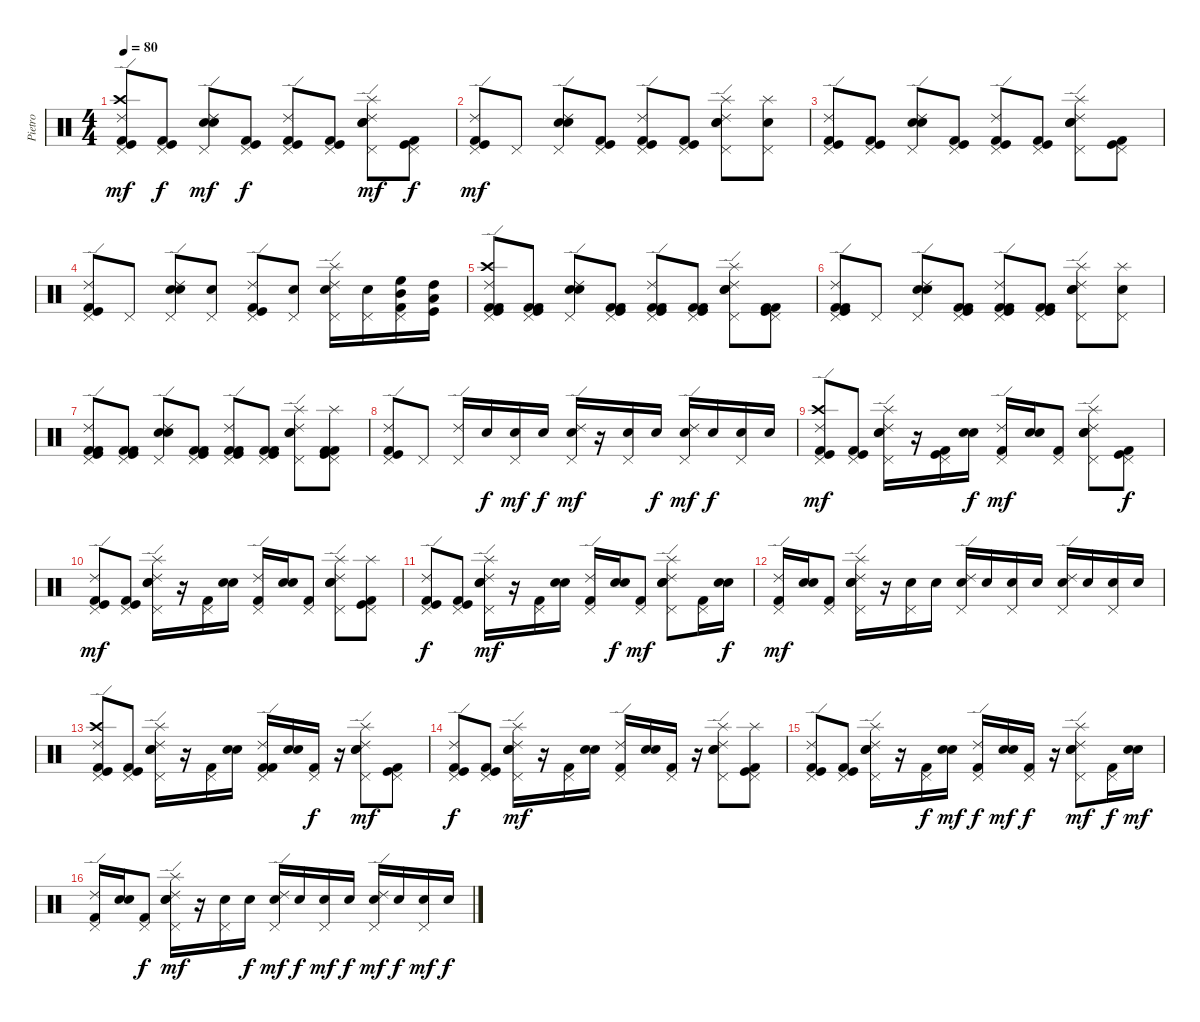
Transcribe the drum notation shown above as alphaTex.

\track ("Pietro" "Pietro") {instrument percussion}
\staff {score}
\articulation defaults
\ts (4 4)
\tempo 80
\clef neutral
\ks c
("Pedal Hi-Hat (hit)" "Ride (edge) 2" "Crash high (hit)" "Kick (hit)" "Kick (hit) 2").8{dy mf} ("Pedal Hi-Hat (hit)" "Kick (hit)" "Kick (hit) 2").8{dy f} ("Pedal Hi-Hat (hit)" "Ride (edge) 2" "Snare (hit) 2" "Electric Snare (hit)").8{dy mf} ("Pedal Hi-Hat (hit)" "Kick (hit)" "Kick (hit) 2").8{dy f} ("Pedal Hi-Hat (hit)" "Ride (edge) 2" "Kick (hit)" "Kick (hit) 2").8 ("Pedal Hi-Hat (hit)" "Kick (hit)" "Kick (hit) 2").8 ("Pedal Hi-Hat (hit)" "Ride (edge) 2" "Snare (hit) 2" "Electric Snare (hit)" "Splash (hit)").8{dy mf} ("Pedal Hi-Hat (hit)" "Kick (hit)" "Kick (hit) 2").8{dy f} |
("Pedal Hi-Hat (hit)" "Ride (edge) 2" "Kick (hit)" "Kick (hit) 2").8{dy mf} "Pedal Hi-Hat (hit)".8 ("Pedal Hi-Hat (hit)" "Ride (edge) 2" "Snare (hit) 2" "Electric Snare (hit)").8 ("Pedal Hi-Hat (hit)" "Kick (hit)" "Kick (hit) 2").8 ("Pedal Hi-Hat (hit)" "Ride (edge) 2" "Kick (hit)" "Kick (hit) 2").8 ("Pedal Hi-Hat (hit)" "Kick (hit)" "Kick (hit) 2").8 ("Pedal Hi-Hat (hit)" "Ride (edge) 2" "Snare (hit) 2" "Electric Snare (hit)" "Splash (hit)").8 ("Pedal Hi-Hat (hit)" "Splash (hit)" "Snare (hit) 2").8 |
("Pedal Hi-Hat (hit)" "Ride (edge) 2" "Kick (hit)" "Kick (hit) 2").8 ("Pedal Hi-Hat (hit)" "Kick (hit)" "Kick (hit) 2").8 ("Pedal Hi-Hat (hit)" "Ride (edge) 2" "Snare (hit) 2" "Electric Snare (hit)").8 ("Pedal Hi-Hat (hit)" "Kick (hit)" "Kick (hit) 2").8 ("Pedal Hi-Hat (hit)" "Ride (edge) 2" "Kick (hit)" "Kick (hit) 2").8 ("Pedal Hi-Hat (hit)" "Kick (hit)" "Kick (hit) 2").8 ("Pedal Hi-Hat (hit)" "Ride (edge) 2" "Snare (hit) 2" "Electric Snare (hit)" "Splash (hit)").8 ("Pedal Hi-Hat (hit)" "Kick (hit)" "Kick (hit) 2").8 |
("Pedal Hi-Hat (hit)" "Ride (edge) 2" "Kick (hit)" "Kick (hit) 2").8 "Pedal Hi-Hat (hit)".8 ("Pedal Hi-Hat (hit)" "Ride (edge) 2" "Snare (hit) 2" "Electric Snare (hit)").8 ("Pedal Hi-Hat (hit)" "Snare (hit) 2").8 ("Pedal Hi-Hat (hit)" "Ride (edge) 2" "Kick (hit)" "Kick (hit) 2").8 ("Pedal Hi-Hat (hit)" "Snare (hit) 2").8 ("Pedal Hi-Hat (hit)" "Ride (edge) 2" "Snare (hit) 2" "Splash (hit)").16 ("Pedal Hi-Hat (hit)" "Snare (hit) 2").16 ("Pedal Hi-Hat (hit)" "Mid Tom (hit)" "High Floor Tom (hit)" "Kick (hit) 2").16 ("High Tom (hit)" "Low Tom (hit)" "Kick (hit)").16 |
("Pedal Hi-Hat (hit)" "Ride (edge) 2" "Kick (hit) 2" "Kick (hit)" "Crash high (hit)" "Kick (hit) 2").8 ("Pedal Hi-Hat (hit)" "Kick (hit)" "Kick (hit) 2" "Kick (hit) 2").8 ("Pedal Hi-Hat (hit)" "Ride (edge) 2" "Snare (hit) 2" "Electric Snare (hit)").8 ("Pedal Hi-Hat (hit)" "Kick (hit)" "Kick (hit) 2" "Kick (hit) 2").8 ("Pedal Hi-Hat (hit)" "Ride (edge) 2" "Kick (hit)" "Kick (hit) 2" "Kick (hit) 2").8 ("Pedal Hi-Hat (hit)" "Kick (hit)" "Kick (hit) 2" "Kick (hit) 2").8 ("Pedal Hi-Hat (hit)" "Ride (edge) 2" "Snare (hit) 2" "Electric Snare (hit)" "Splash (hit)").8 ("Pedal Hi-Hat (hit)" "Kick (hit)" "Kick (hit) 2" "Kick (hit) 2").8 |
("Kick (hit)" "Kick (hit) 2" "Ride (edge) 2" "Pedal Hi-Hat (hit)" "Kick (hit) 2").8 "Pedal Hi-Hat (hit)".8 ("Electric Snare (hit)" "Snare (hit) 2" "Ride (edge) 2" "Pedal Hi-Hat (hit)").8 ("Kick (hit) 2" "Kick (hit)" "Pedal Hi-Hat (hit)" "Kick (hit) 2").8 ("Kick (hit) 2" "Kick (hit)" "Ride (edge) 2" "Pedal Hi-Hat (hit)" "Kick (hit) 2").8 ("Kick (hit) 2" "Kick (hit)" "Pedal Hi-Hat (hit)" "Kick (hit) 2").8 ("Electric Snare (hit)" "Snare (hit) 2" "Ride (edge) 2" "Pedal Hi-Hat (hit)" "Splash (hit)").8 ("Pedal Hi-Hat (hit)" "Snare (hit) 2" "Splash (hit)").8 |
("Kick (hit)" "Kick (hit) 2" "Ride (edge) 2" "Pedal Hi-Hat (hit)" "Kick (hit) 2").8 ("Kick (hit) 2" "Kick (hit)" "Pedal Hi-Hat (hit)" "Kick (hit) 2").8 ("Electric Snare (hit)" "Snare (hit) 2" "Ride (edge) 2" "Pedal Hi-Hat (hit)").8 ("Kick (hit) 2" "Kick (hit)" "Pedal Hi-Hat (hit)" "Kick (hit) 2").8 ("Kick (hit) 2" "Kick (hit)" "Ride (edge) 2" "Pedal Hi-Hat (hit)" "Kick (hit) 2").8 ("Kick (hit) 2" "Kick (hit)" "Pedal Hi-Hat (hit)" "Kick (hit) 2").8 ("Splash (hit)" "Electric Snare (hit)" "Snare (hit) 2" "Ride (edge) 2" "Pedal Hi-Hat (hit)").8 ("Splash (hit)" "Kick (hit) 2" "Kick (hit)" "Pedal Hi-Hat (hit)" "Kick (hit) 2").8 |
("Pedal Hi-Hat (hit)" "Ride (edge) 2" "Kick (hit)" "Kick (hit) 2").8 "Pedal Hi-Hat (hit)".8 ("Pedal Hi-Hat (hit)" "Ride (edge) 2").16 "Snare (hit) 2".16{dy f} ("Pedal Hi-Hat (hit)" "Snare (hit) 2").16{dy mf} "Snare (hit) 2".16{dy f} ("Pedal Hi-Hat (hit)" "Ride (edge) 2" "Snare (hit) 2").16{dy mf} r.16 ("Pedal Hi-Hat (hit)" "Snare (hit) 2").16 "Snare (hit) 2".16{dy f} ("Pedal Hi-Hat (hit)" "Ride (edge) 2" "Snare (hit) 2").16{dy mf} "Snare (hit) 2".16{dy f} ("Pedal Hi-Hat (hit)" "Snare (hit) 2").16 "Snare (hit) 2".16 |
("Pedal Hi-Hat (hit)" "Ride (edge) 2" "Crash high (hit)" "Kick (hit)" "Kick (hit) 2").8{dy mf} ("Pedal Hi-Hat (hit)" "Kick (hit)" "Kick (hit) 2").8 ("Pedal Hi-Hat (hit)" "Ride (edge) 2" "Snare (hit) 2" "Electric Snare (hit)" "Splash (hit)").16 r.16 ("Pedal Hi-Hat (hit)" "Kick (hit)" "Kick (hit) 2").16 ("Electric Snare (hit)" "Snare (hit) 2").16{dy f} ("Pedal Hi-Hat (hit)" "Ride (edge) 2" "Kick (hit) 2").16{dy mf} ("Electric Snare (hit)" "Snare (hit) 2").16 ("Pedal Hi-Hat (hit)" "Kick (hit) 2").8 ("Pedal Hi-Hat (hit)" "Electric Snare (hit)" "Snare (hit) 2" "Ride (edge) 2" "Splash (hit)").8 ("Pedal Hi-Hat (hit)" "Kick (hit)" "Kick (hit) 2").8{dy f} |
("Pedal Hi-Hat (hit)" "Ride (edge) 2" "Kick (hit)" "Kick (hit) 2").8{dy mf} ("Pedal Hi-Hat (hit)" "Kick (hit)" "Kick (hit) 2").8 ("Pedal Hi-Hat (hit)" "Ride (edge) 2" "Snare (hit) 2" "Electric Snare (hit)" "Splash (hit)").16 r.16 ("Pedal Hi-Hat (hit)" "Kick (hit) 2").16 ("Electric Snare (hit)" "Snare (hit) 2").16 ("Pedal Hi-Hat (hit)" "Ride (edge) 2" "Kick (hit) 2").16 ("Electric Snare (hit)" "Snare (hit) 2").16 ("Pedal Hi-Hat (hit)" "Kick (hit) 2").8 ("Pedal Hi-Hat (hit)" "Ride (edge) 2" "Snare (hit) 2" "Electric Snare (hit)" "Splash (hit)").8 ("Pedal Hi-Hat (hit)" "Splash (hit)" "Kick (hit)" "Kick (hit) 2").8 |
("Pedal Hi-Hat (hit)" "Ride (edge) 2" "Kick (hit)" "Kick (hit) 2").8{dy f} ("Pedal Hi-Hat (hit)" "Kick (hit)" "Kick (hit) 2").8 ("Pedal Hi-Hat (hit)" "Ride (edge) 2" "Snare (hit) 2" "Electric Snare (hit)" "Splash (hit)").16{dy mf} r.16 ("Pedal Hi-Hat (hit)" "Kick (hit) 2").16 ("Electric Snare (hit)" "Snare (hit) 2").16 ("Ride (edge) 2" "Pedal Hi-Hat (hit)" "Kick (hit) 2").16 ("Electric Snare (hit)" "Snare (hit) 2").16{dy f} ("Pedal Hi-Hat (hit)" "Kick (hit) 2").8{dy mf} ("Pedal Hi-Hat (hit)" "Ride (edge) 2" "Snare (hit) 2" "Electric Snare (hit)" "Splash (hit)").8 ("Pedal Hi-Hat (hit)" "Kick (hit) 2").16 ("Electric Snare (hit)" "Snare (hit) 2").16{dy f} |
("Pedal Hi-Hat (hit)" "Ride (edge) 2" "Kick (hit) 2").16{dy mf} ("Snare (hit) 2" "Electric Snare (hit)").16 ("Pedal Hi-Hat (hit)" "Kick (hit) 2").8 ("Pedal Hi-Hat (hit)" "Ride (edge) 2" "Snare (hit) 2" "Electric Snare (hit)" "Splash (hit)").16 r.16 ("Pedal Hi-Hat (hit)" "Snare (hit) 2").16 "Snare (hit) 2".16 ("Pedal Hi-Hat (hit)" "Ride (edge) 2" "Snare (hit) 2").16 "Snare (hit) 2".16 ("Pedal Hi-Hat (hit)" "Snare (hit) 2").16 "Snare (hit) 2".16 ("Pedal Hi-Hat (hit)" "Ride (edge) 2" "Snare (hit) 2").16 "Snare (hit) 2".16 ("Pedal Hi-Hat (hit)" "Snare (hit) 2").16 "Snare (hit) 2".16 |
("Pedal Hi-Hat (hit)" "Ride (edge) 2" "Crash high (hit)" "Kick (hit)" "Kick (hit) 2").8 ("Pedal Hi-Hat (hit)" "Kick (hit)" "Kick (hit) 2").8 ("Pedal Hi-Hat (hit)" "Ride (edge) 2" "Snare (hit) 2" "Electric Snare (hit)" "Splash (hit)").16 r.16 ("Pedal Hi-Hat (hit)" "Kick (hit) 2").16 ("Electric Snare (hit)" "Snare (hit) 2").16 ("Kick (hit) 2" "Ride (edge) 2" "Pedal Hi-Hat (hit)" "Kick (hit) 2").16 ("Electric Snare (hit)" "Snare (hit) 2").16 ("Pedal Hi-Hat (hit)" "Kick (hit) 2").16{dy f} r.16 ("Pedal Hi-Hat (hit)" "Ride (edge) 2" "Snare (hit) 2" "Electric Snare (hit)" "Splash (hit)").8{dy mf} ("Pedal Hi-Hat (hit)" "Kick (hit)" "Kick (hit) 2").8 |
("Pedal Hi-Hat (hit)" "Ride (edge) 2" "Kick (hit)" "Kick (hit) 2").8{dy f} ("Pedal Hi-Hat (hit)" "Kick (hit)" "Kick (hit) 2").8 ("Pedal Hi-Hat (hit)" "Ride (edge) 2" "Snare (hit) 2" "Electric Snare (hit)" "Splash (hit)").16{dy mf} r.16 ("Pedal Hi-Hat (hit)" "Kick (hit) 2").16 ("Electric Snare (hit)" "Snare (hit) 2").16 ("Pedal Hi-Hat (hit)" "Ride (edge) 2" "Kick (hit) 2").16 ("Electric Snare (hit)" "Snare (hit) 2").16 ("Pedal Hi-Hat (hit)" "Kick (hit) 2").16 r.16 ("Pedal Hi-Hat (hit)" "Electric Snare (hit)" "Snare (hit) 2" "Ride (edge) 2" "Splash (hit)").8 ("Pedal Hi-Hat (hit)" "Splash (hit)" "Kick (hit)" "Kick (hit) 2").8 |
("Pedal Hi-Hat (hit)" "Ride (edge) 2" "Kick (hit)" "Kick (hit) 2").8 ("Pedal Hi-Hat (hit)" "Kick (hit)" "Kick (hit) 2").8 ("Pedal Hi-Hat (hit)" "Ride (edge) 2" "Snare (hit) 2" "Electric Snare (hit)" "Splash (hit)").16 r.16 ("Pedal Hi-Hat (hit)" "Kick (hit) 2").16{dy f} ("Electric Snare (hit)" "Snare (hit) 2").16{dy mf} ("Pedal Hi-Hat (hit)" "Ride (edge) 2" "Kick (hit) 2").16{dy f} ("Electric Snare (hit)" "Snare (hit) 2").16{dy mf} ("Pedal Hi-Hat (hit)" "Kick (hit) 2").16{dy f} r.16 ("Pedal Hi-Hat (hit)" "Ride (edge) 2" "Snare (hit) 2" "Electric Snare (hit)" "Splash (hit)").8{dy mf} ("Pedal Hi-Hat (hit)" "Kick (hit) 2").16{dy f} ("Electric Snare (hit)" "Snare (hit) 2").16{dy mf} |
("Pedal Hi-Hat (hit)" "Ride (edge) 2" "Kick (hit) 2").16 ("Electric Snare (hit)" "Snare (hit) 2").16 ("Pedal Hi-Hat (hit)" "Kick (hit) 2").8{dy f} ("Pedal Hi-Hat (hit)" "Ride (edge) 2" "Snare (hit) 2" "Electric Snare (hit)" "Splash (hit)").16{dy mf} r.16 ("Pedal Hi-Hat (hit)" "Snare (hit) 2").16 "Snare (hit) 2".16{dy f} ("Pedal Hi-Hat (hit)" "Ride (edge) 2" "Snare (hit) 2").16{dy mf} "Snare (hit) 2".16{dy f} ("Pedal Hi-Hat (hit)" "Snare (hit) 2").16{dy mf} "Snare (hit) 2".16{dy f} ("Pedal Hi-Hat (hit)" "Ride (edge) 2" "Snare (hit) 2").16{dy mf} "Snare (hit) 2".16{dy f} ("Pedal Hi-Hat (hit)" "Snare (hit) 2").16{dy mf} "Snare (hit) 2".16{dy f}
